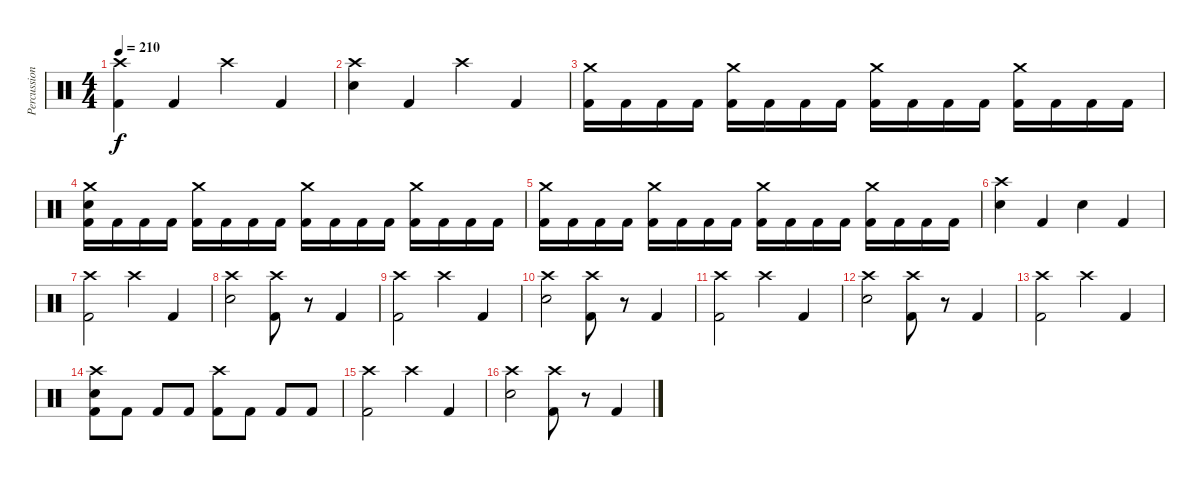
\track ("Percussion" "Percussion") {instrument percussion}
\staff {score}
\articulation defaults
\ts (4 4)
\tempo 210
\clef neutral
\ks c
("Crash high (hit)" "Kick (hit) 2").4{dy f} "Kick (hit) 2".4 "Crash high (hit)".4 "Kick (hit) 2".4 |
("Crash high (hit)" "Electric Snare (hit)").4 "Kick (hit) 2".4 "Crash high (hit)".4 "Kick (hit) 2".4 |
("Crash medium (hit)" "Kick (hit) 2").16 "Kick (hit) 2".16 "Kick (hit) 2".16 "Kick (hit) 2".16 ("Crash medium (hit)" "Kick (hit) 2").16 "Kick (hit) 2".16 "Kick (hit) 2".16 "Kick (hit) 2".16 ("Crash medium (hit)" "Kick (hit) 2").16 "Kick (hit) 2".16 "Kick (hit) 2".16 "Kick (hit) 2".16 ("Crash medium (hit)" "Kick (hit) 2").16 "Kick (hit) 2".16 "Kick (hit) 2".16 "Kick (hit) 2".16 |
("Crash medium (hit)" "Electric Snare (hit)" "Kick (hit) 2").16 "Kick (hit) 2".16 "Kick (hit) 2".16 "Kick (hit) 2".16 ("Crash medium (hit)" "Kick (hit) 2").16 "Kick (hit) 2".16 "Kick (hit) 2".16 "Kick (hit) 2".16 ("Crash medium (hit)" "Kick (hit) 2").16 "Kick (hit) 2".16 "Kick (hit) 2".16 "Kick (hit) 2".16 ("Crash medium (hit)" "Kick (hit) 2").16 "Kick (hit) 2".16 "Kick (hit) 2".16 "Kick (hit) 2".16 |
("Crash medium (hit)" "Kick (hit) 2").16 "Kick (hit) 2".16 "Kick (hit) 2".16 "Kick (hit) 2".16 ("Crash medium (hit)" "Kick (hit) 2").16 "Kick (hit) 2".16 "Kick (hit) 2".16 "Kick (hit) 2".16 ("Crash medium (hit)" "Kick (hit) 2").16 "Kick (hit) 2".16 "Kick (hit) 2".16 "Kick (hit) 2".16 ("Crash medium (hit)" "Kick (hit) 2").16 "Kick (hit) 2".16 "Kick (hit) 2".16 "Kick (hit) 2".16 |
("Crash high (hit)" "Electric Snare (hit)").4 "Kick (hit) 2".4 "Electric Snare (hit)".4 "Kick (hit) 2".4 |
("Crash high (hit)" "Kick (hit) 2").2 "Crash high (hit)".4 "Kick (hit) 2".4 |
("Crash high (hit)" "Electric Snare (hit)").2 ("Crash high (hit)" "Kick (hit) 2").8 r.8 "Kick (hit) 2".4 |
("Crash high (hit)" "Kick (hit) 2").2 "Crash high (hit)".4 "Kick (hit) 2".4 |
("Crash high (hit)" "Electric Snare (hit)").2 ("Crash high (hit)" "Kick (hit) 2").8 r.8 "Kick (hit) 2".4 |
("Crash high (hit)" "Kick (hit) 2").2 "Crash high (hit)".4 "Kick (hit) 2".4 |
("Crash high (hit)" "Electric Snare (hit)").2 ("Crash high (hit)" "Kick (hit) 2").8 r.8 "Kick (hit) 2".4 |
("Crash high (hit)" "Kick (hit) 2").2 "Crash high (hit)".4 "Kick (hit) 2".4 |
("Crash high (hit)" "Electric Snare (hit)" "Kick (hit) 2").8 "Kick (hit) 2".8 "Kick (hit) 2".8 "Kick (hit) 2".8 ("Crash high (hit)" "Kick (hit) 2").8 "Kick (hit) 2".8 "Kick (hit) 2".8 "Kick (hit) 2".8 |
("Crash high (hit)" "Kick (hit) 2").2 "Crash high (hit)".4 "Kick (hit) 2".4 |
("Crash high (hit)" "Electric Snare (hit)").2 ("Crash high (hit)" "Kick (hit) 2").8 r.8 "Kick (hit) 2".4
